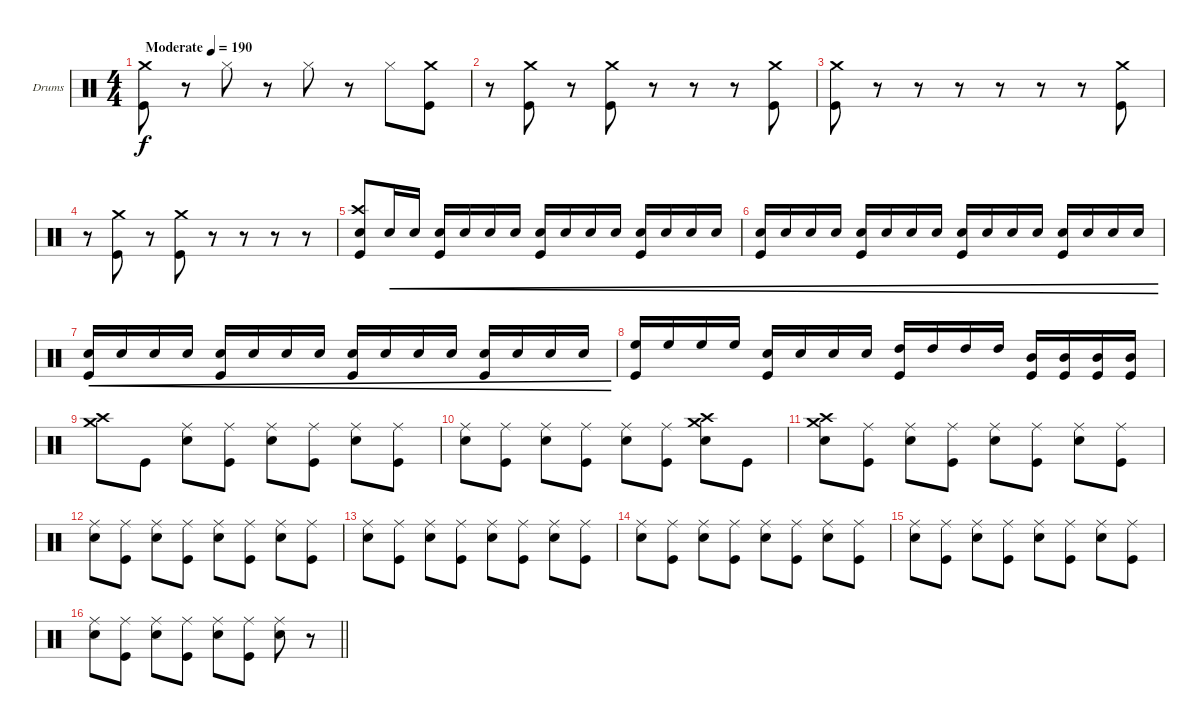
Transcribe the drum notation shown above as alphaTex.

\bracketExtendMode groupsimilarinstruments
\firstSystemTrackNameOrientation horizontal
\otherSystemsTrackNameOrientation horizontal
\track ("Drumkit" "Drums") {instrument percussion}
\staff {score}
\articulation defaults
\ts (4 4)
\beaming (8 2 2 2 2)
\tempo (190 "Moderate")
\clef neutral
\ks c
("Crash medium (hit)" "Kick (hit)").8{dy f} r.8 "Hi-Hat (closed)".8 r.8 "Hi-Hat (closed)".8 r.8 "Hi-Hat (closed)".8 ("Crash medium (hit)" "Kick (hit)").8 |
r.8 ("Crash medium (hit)" "Kick (hit)").8 r.8 ("Crash medium (hit)" "Kick (hit)").8 r.8 r.8 r.8 ("Crash medium (hit)" "Kick (hit)").8 |
("Crash medium (hit)" "Kick (hit)").8 r.8 r.8 r.8 r.8 r.8 r.8 ("Crash medium (hit)" "Kick (hit)").8 |
r.8 ("Crash medium (hit)" "Kick (hit)").8 r.8 ("Crash medium (hit)" "Kick (hit)").8 r.8 r.8 r.8 r.8 |
("Crash high (hit)" "Snare (hit) 2" "Kick (hit)").8 "Snare (hit) 2".16{cre} "Snare (hit) 2".16{cre} ("Snare (hit) 2" "Kick (hit)").16{cre} "Snare (hit) 2".16{cre} "Snare (hit) 2".16{cre} "Snare (hit) 2".16{cre} ("Snare (hit) 2" "Kick (hit)").16{cre} "Snare (hit) 2".16{cre} "Snare (hit) 2".16{cre} "Snare (hit) 2".16{cre} ("Snare (hit) 2" "Kick (hit)").16{cre} "Snare (hit) 2".16{cre} "Snare (hit) 2".16{cre} "Snare (hit) 2".16{cre} |
("Snare (hit) 2" "Kick (hit)").16{cre} "Snare (hit) 2".16{cre} "Snare (hit) 2".16{cre} "Snare (hit) 2".16{cre} ("Snare (hit) 2" "Kick (hit)").16{cre} "Snare (hit) 2".16{cre} "Snare (hit) 2".16{cre} "Snare (hit) 2".16{cre} ("Snare (hit) 2" "Kick (hit)").16{cre} "Snare (hit) 2".16{cre} "Snare (hit) 2".16{cre} "Snare (hit) 2".16{cre} ("Snare (hit) 2" "Kick (hit)").16{cre} "Snare (hit) 2".16{cre} "Snare (hit) 2".16{cre} "Snare (hit) 2".16{cre} |
("Snare (hit) 2" "Kick (hit)").16{cre} "Snare (hit) 2".16{cre} "Snare (hit) 2".16{cre} "Snare (hit) 2".16{cre} ("Snare (hit) 2" "Kick (hit)").16{cre} "Snare (hit) 2".16{cre} "Snare (hit) 2".16{cre} "Snare (hit) 2".16{cre} ("Snare (hit) 2" "Kick (hit)").16{cre} "Snare (hit) 2".16{cre} "Snare (hit) 2".16{cre} "Snare (hit) 2".16{cre} ("Snare (hit) 2" "Kick (hit)").16{cre} "Snare (hit) 2".16{cre} "Snare (hit) 2".16{cre} "Snare (hit) 2".16{cre} |
("High Floor Tom (hit)" "Kick (hit)").16 "High Floor Tom (hit)".16 "High Floor Tom (hit)".16 "High Floor Tom (hit)".16 ("Snare (hit) 2" "Kick (hit)").16 "Snare (hit) 2".16 "Snare (hit) 2".16 "Snare (hit) 2".16 ("High Tom (hit)" "Kick (hit)").16 "High Tom (hit)".16 "High Tom (hit)".16 "High Tom (hit)".16 ("Mid Tom (hit)" "Kick (hit)").16 ("Mid Tom (hit)" "Kick (hit)").16 ("Mid Tom (hit)" "Kick (hit)").16 ("Mid Tom (hit)" "Kick (hit)").16 |
("Crash high (hit)" "Crash medium (hit)").8 "Kick (hit)".8 ("Snare (hit) 2" "Ride (middle)").8 ("Kick (hit)" "Ride (middle)").8 ("Snare (hit) 2" "Ride (middle)").8 ("Kick (hit)" "Ride (middle)").8 ("Snare (hit) 2" "Ride (middle)").8 ("Kick (hit)" "Ride (middle)").8 |
("Snare (hit) 2" "Ride (middle)").8 ("Kick (hit)" "Ride (middle)").8 ("Snare (hit) 2" "Ride (middle)").8 ("Kick (hit)" "Ride (middle)").8 ("Snare (hit) 2" "Ride (middle)").8 ("Kick (hit)" "Ride (middle)").8 ("Crash high (hit)" "Crash medium (hit)" "Snare (hit) 2").8 "Kick (hit)".8 |
("Crash high (hit)" "Crash medium (hit)" "Snare (hit) 2").8 ("Kick (hit)" "Ride (middle)").8 ("Snare (hit) 2" "Ride (middle)").8 ("Kick (hit)" "Ride (middle)").8 ("Snare (hit) 2" "Ride (middle)").8 ("Kick (hit)" "Ride (middle)").8 ("Snare (hit) 2" "Ride (middle)").8 ("Kick (hit)" "Ride (middle)").8 |
("Snare (hit) 2" "Ride (middle)").8 ("Kick (hit)" "Ride (middle)").8 ("Snare (hit) 2" "Ride (middle)").8 ("Kick (hit)" "Ride (middle)").8 ("Snare (hit) 2" "Ride (middle)").8 ("Kick (hit)" "Ride (middle)").8 ("Snare (hit) 2" "Ride (middle)").8 ("Kick (hit)" "Ride (middle)").8 |
("Snare (hit) 2" "Ride (middle)").8 ("Kick (hit)" "Ride (middle)").8 ("Snare (hit) 2" "Ride (middle)").8 ("Kick (hit)" "Ride (middle)").8 ("Snare (hit) 2" "Ride (middle)").8 ("Kick (hit)" "Ride (middle)").8 ("Snare (hit) 2" "Ride (middle)").8 ("Kick (hit)" "Ride (middle)").8 |
("Snare (hit) 2" "Ride (middle)").8 ("Kick (hit)" "Ride (middle)").8 ("Snare (hit) 2" "Ride (middle)").8 ("Kick (hit)" "Ride (middle)").8 ("Snare (hit) 2" "Ride (middle)").8 ("Kick (hit)" "Ride (middle)").8 ("Snare (hit) 2" "Ride (middle)").8 ("Kick (hit)" "Ride (middle)").8 |
("Snare (hit) 2" "Ride (middle)").8 ("Kick (hit)" "Ride (middle)").8 ("Snare (hit) 2" "Ride (middle)").8 ("Kick (hit)" "Ride (middle)").8 ("Snare (hit) 2" "Ride (middle)").8 ("Kick (hit)" "Ride (middle)").8 ("Snare (hit) 2" "Ride (middle)").8 ("Kick (hit)" "Ride (middle)").8 |
\barLineRight lightlight
("Snare (hit) 2" "Ride (middle)").8 ("Kick (hit)" "Ride (middle)").8 ("Snare (hit) 2" "Ride (middle)").8 ("Kick (hit)" "Ride (middle)").8 ("Snare (hit) 2" "Ride (middle)").8 ("Kick (hit)" "Ride (middle)").8 ("Snare (hit) 2" "Ride (middle)").8 r.8
